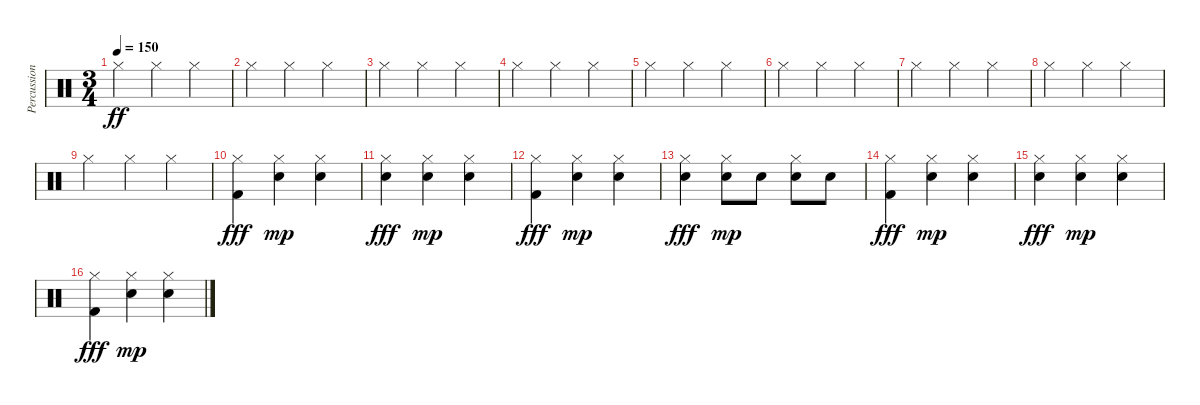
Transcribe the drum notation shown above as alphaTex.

\track ("Percussion" "Percussion") {instrument percussion}
\staff {score}
\articulation defaults
\ts (3 4)
\tempo 150
\clef neutral
\ks c "Hi-Hat (closed)".4{dy ff} "Hi-Hat (closed)".4 "Hi-Hat (closed)".4
|
"Hi-Hat (closed)".4 "Hi-Hat (closed)".4 "Hi-Hat (closed)".4 |
"Hi-Hat (closed)".4 "Hi-Hat (closed)".4 "Hi-Hat (closed)".4 |
"Hi-Hat (closed)".4 "Hi-Hat (closed)".4 "Hi-Hat (closed)".4 |
"Hi-Hat (closed)".4 "Hi-Hat (closed)".4 "Hi-Hat (closed)".4 |
"Hi-Hat (closed)".4 "Hi-Hat (closed)".4 "Hi-Hat (closed)".4 |
"Hi-Hat (closed)".4 "Hi-Hat (closed)".4 "Hi-Hat (closed)".4 |
"Hi-Hat (closed)".4 "Hi-Hat (closed)".4 "Hi-Hat (closed)".4 |
"Hi-Hat (closed)".4 "Hi-Hat (closed)".4 "Hi-Hat (closed)".4 |
("Hi-Hat (closed)" "Kick (hit) 2").4{dy fff} ("Hi-Hat (closed)" "Electric Snare (hit)").4{dy mp} ("Hi-Hat (closed)" "Electric Snare (hit)").4 |
("Hi-Hat (closed)" "Electric Snare (hit)").4{dy fff} ("Hi-Hat (closed)" "Electric Snare (hit)").4{dy mp} ("Hi-Hat (closed)" "Electric Snare (hit)").4 |
("Hi-Hat (closed)" "Kick (hit) 2").4{dy fff} ("Hi-Hat (closed)" "Electric Snare (hit)").4{dy mp} ("Hi-Hat (closed)" "Electric Snare (hit)").4 |
("Hi-Hat (closed)" "Electric Snare (hit)").4{dy fff} ("Hi-Hat (closed)" "Electric Snare (hit)").8{dy mp} "Electric Snare (hit)".8 ("Hi-Hat (closed)" "Electric Snare (hit)").8 "Electric Snare (hit)".8 |
("Hi-Hat (closed)" "Kick (hit) 2").4{dy fff} ("Hi-Hat (closed)" "Electric Snare (hit)").4{dy mp} ("Hi-Hat (closed)" "Electric Snare (hit)").4 |
("Hi-Hat (closed)" "Electric Snare (hit)").4{dy fff} ("Hi-Hat (closed)" "Electric Snare (hit)").4{dy mp} ("Hi-Hat (closed)" "Electric Snare (hit)").4 |
("Hi-Hat (closed)" "Kick (hit) 2").4{dy fff} ("Hi-Hat (closed)" "Electric Snare (hit)").4{dy mp} ("Hi-Hat (closed)" "Electric Snare (hit)").4
